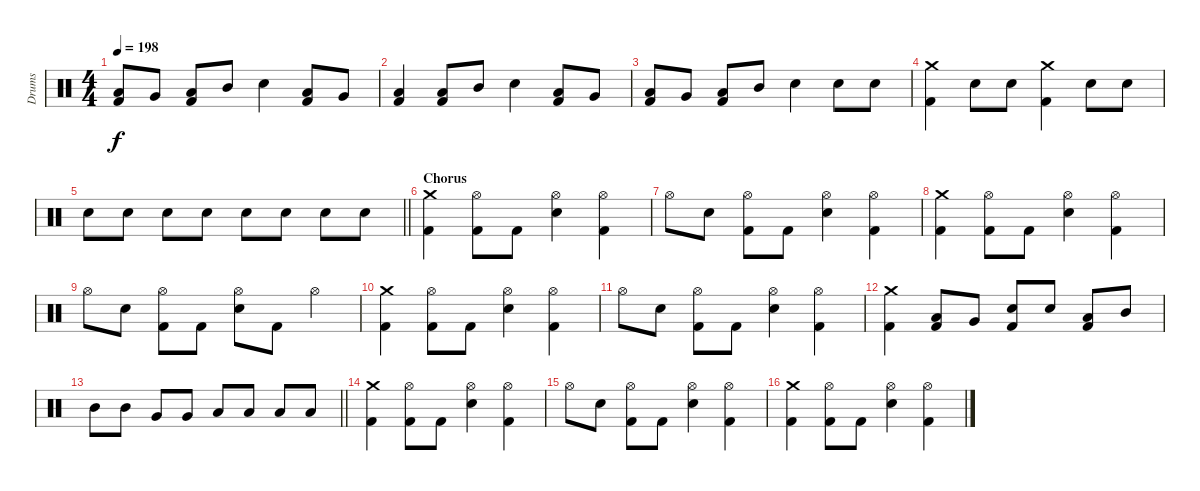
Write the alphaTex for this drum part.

\track ("Drums" "Drums") {instrument percussion}
\staff {score}
\articulation defaults
\ts (4 4)
\tempo 198
\clef neutral
\ks c
("Low Floor Tom (hit)" "Kick (hit) 2").8{dy f} "Very Low Tom (hit)".8 ("Low Tom (hit)" "Kick (hit) 2").8 "Mid Tom (hit)".8 "Snare (hit) 2".4 ("Low Floor Tom (hit)" "Kick (hit) 2").8 "Very Low Tom (hit)".8 |
("Low Floor Tom (hit)" "Kick (hit) 2").4 ("Low Tom (hit)" "Kick (hit) 2").8 "Mid Tom (hit)".8 "Snare (hit) 2".4 ("Low Floor Tom (hit)" "Kick (hit) 2").8 "Very Low Tom (hit)".8 |
("Low Floor Tom (hit)" "Kick (hit) 2").8 "Very Low Tom (hit)".8 ("Low Tom (hit)" "Kick (hit) 2").8 "Mid Tom (hit)".8 "Snare (hit) 2".4 "Snare (hit) 2".8 "Snare (hit) 2".8 |
("Crash medium (hit)" "Kick (hit) 2").4 "Snare (hit) 2".8 "Snare (hit) 2".8 ("Crash medium (hit)" "Kick (hit) 2").4 "Snare (hit) 2".8 "Snare (hit) 2".8 |
\barLineRight lightlight "Snare (hit) 2".8 "Snare (hit) 2".8 "Snare (hit) 2".8 "Snare (hit) 2".8 "Snare (hit) 2".8 "Snare (hit) 2".8 "Snare (hit) 2".8 "Snare (hit) 2".8
|
\section ("" "Chorus")
("Crash medium (hit)" "Kick (hit) 2").4 ("Hi-Hat (open)" "Kick (hit) 2").8 "Kick (hit) 2".8 ("Hi-Hat (open)" "Snare (hit) 2").4 ("Hi-Hat (open)" "Kick (hit) 2").4 |
"Hi-Hat (open)".8 "Snare (hit) 2".8 ("Hi-Hat (open)" "Kick (hit) 2").8 "Kick (hit) 2".8 ("Hi-Hat (open)" "Snare (hit) 2").4 ("Hi-Hat (open)" "Kick (hit) 2").4 |
("Crash medium (hit)" "Kick (hit) 2").4 ("Hi-Hat (open)" "Kick (hit) 2").8 "Kick (hit) 2".8 ("Hi-Hat (open)" "Snare (hit) 2").4 ("Hi-Hat (open)" "Kick (hit) 2").4 |
"Hi-Hat (open)".8 "Snare (hit) 2".8 ("Hi-Hat (open)" "Kick (hit) 2").8 "Kick (hit) 2".8 ("Hi-Hat (open)" "Snare (hit) 2").8 "Kick (hit) 2".8 "Hi-Hat (open)".4 |
("Crash medium (hit)" "Kick (hit) 2").4 ("Hi-Hat (open)" "Kick (hit) 2").8 "Kick (hit) 2".8 ("Hi-Hat (open)" "Snare (hit) 2").4 ("Hi-Hat (open)" "Kick (hit) 2").4 |
"Hi-Hat (open)".8 "Snare (hit) 2".8 ("Hi-Hat (open)" "Kick (hit) 2").8 "Kick (hit) 2".8 ("Hi-Hat (open)" "Snare (hit) 2").4 ("Hi-Hat (open)" "Kick (hit) 2").4 |
("Crash medium (hit)" "Kick (hit) 2").4 ("Low Floor Tom (hit)" "Kick (hit) 2").8 "Very Low Tom (hit)".8 ("Snare (hit) 2" "Kick (hit) 2").8 "Snare (hit) 2".8 ("Low Tom (hit)" "Kick (hit) 2").8 "Mid Tom (hit)".8 |
\barLineRight lightlight "Mid Tom (hit)".8 "Mid Tom (hit)".8 "Very Low Tom (hit)".8 "Very Low Tom (hit)".8 "Low Tom (hit)".8 "Low Tom (hit)".8 "Low Floor Tom (hit)".8 "Low Floor Tom (hit)".8
|
\section ("" "")
("Crash medium (hit)" "Kick (hit) 2").4 ("Hi-Hat (open)" "Kick (hit) 2").8 "Kick (hit) 2".8 ("Hi-Hat (open)" "Snare (hit) 2").4 ("Hi-Hat (open)" "Kick (hit) 2").4 |
"Hi-Hat (open)".8 "Snare (hit) 2".8 ("Hi-Hat (open)" "Kick (hit) 2").8 "Kick (hit) 2".8 ("Hi-Hat (open)" "Snare (hit) 2").4 ("Hi-Hat (open)" "Kick (hit) 2").4 |
("Crash medium (hit)" "Kick (hit) 2").4 ("Hi-Hat (open)" "Kick (hit) 2").8 "Kick (hit) 2".8 ("Hi-Hat (open)" "Snare (hit) 2").4 ("Hi-Hat (open)" "Kick (hit) 2").4
